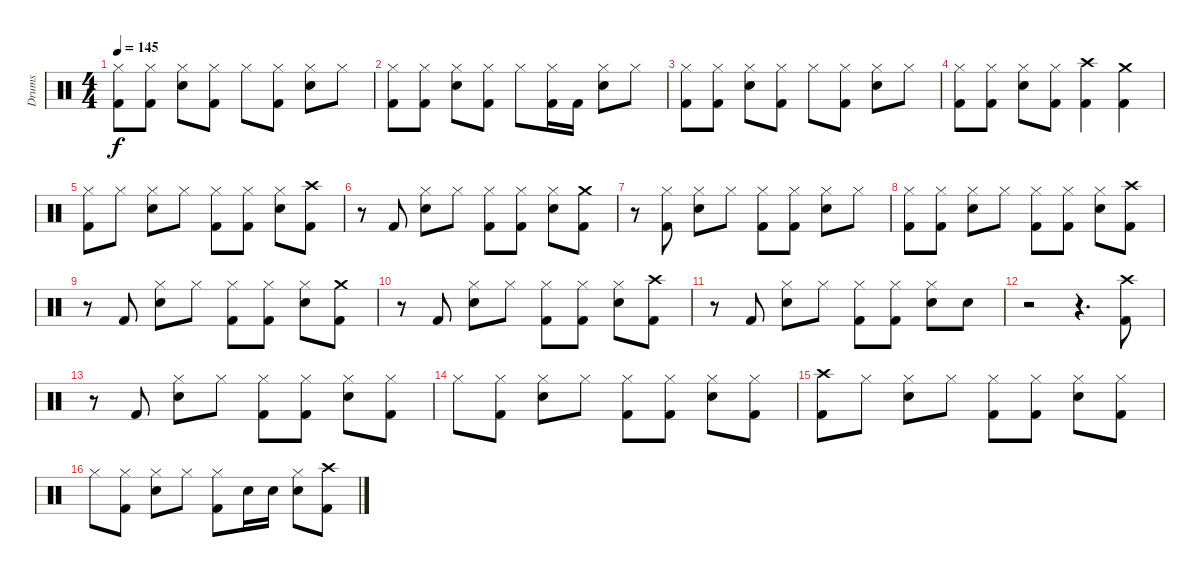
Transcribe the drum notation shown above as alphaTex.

\track ("Drums" "Drums") {instrument percussion}
\staff {score}
\articulation defaults
\ts (4 4)
\tempo 145
\clef neutral
\ks c
("Hi-Hat (closed)" "Kick (hit) 2").8{dy f} ("Hi-Hat (closed)" "Kick (hit) 2").8 ("Hi-Hat (closed)" "Snare (hit) 2").8 ("Hi-Hat (closed)" "Kick (hit) 2").8 "Hi-Hat (closed)".8 ("Hi-Hat (closed)" "Kick (hit) 2").8 ("Hi-Hat (closed)" "Snare (hit) 2").8 "Hi-Hat (closed)".8 |
("Hi-Hat (closed)" "Kick (hit) 2").8 ("Hi-Hat (closed)" "Kick (hit) 2").8 ("Hi-Hat (closed)" "Snare (hit) 2").8 ("Hi-Hat (closed)" "Kick (hit) 2").8 "Hi-Hat (closed)".8 ("Hi-Hat (closed)" "Kick (hit) 2").16 "Kick (hit) 2".16 ("Hi-Hat (closed)" "Snare (hit) 2").8 "Hi-Hat (closed)".8 |
("Hi-Hat (closed)" "Kick (hit) 2").8 ("Hi-Hat (closed)" "Kick (hit) 2").8 ("Hi-Hat (closed)" "Snare (hit) 2").8 ("Hi-Hat (closed)" "Kick (hit) 2").8 "Hi-Hat (closed)".8 ("Hi-Hat (closed)" "Kick (hit) 2").8 ("Hi-Hat (closed)" "Snare (hit) 2").8 "Hi-Hat (closed)".8 |
("Hi-Hat (closed)" "Kick (hit) 2").8 ("Hi-Hat (closed)" "Kick (hit) 2").8 ("Hi-Hat (closed)" "Snare (hit) 2").8 ("Hi-Hat (closed)" "Kick (hit) 2").8 ("Crash high (hit)" "Kick (hit) 2").4 ("Crash medium (hit)" "Kick (hit) 2").4 |
("Hi-Hat (closed)" "Kick (hit) 2").8 "Hi-Hat (closed)".8 ("Hi-Hat (closed)" "Snare (hit) 2").8 "Hi-Hat (closed)".8 ("Hi-Hat (closed)" "Kick (hit) 2").8 ("Hi-Hat (closed)" "Kick (hit) 2").8 ("Hi-Hat (closed)" "Snare (hit) 2").8 ("Crash high (hit)" "Kick (hit) 2").8 |
r.8 "Kick (hit) 2".8 ("Hi-Hat (closed)" "Snare (hit) 2").8 "Hi-Hat (closed)".8 ("Hi-Hat (closed)" "Kick (hit) 2").8 ("Hi-Hat (closed)" "Kick (hit) 2").8 ("Hi-Hat (closed)" "Snare (hit) 2").8 ("Crash medium (hit)" "Kick (hit) 2").8 |
r.8 ("Hi-Hat (closed)" "Kick (hit) 2").8 ("Hi-Hat (closed)" "Snare (hit) 2").8 "Hi-Hat (closed)".8 ("Hi-Hat (closed)" "Kick (hit) 2").8 ("Hi-Hat (closed)" "Kick (hit) 2").8 ("Hi-Hat (closed)" "Snare (hit) 2").8 "Hi-Hat (closed)".8 |
("Hi-Hat (closed)" "Kick (hit) 2").8 ("Hi-Hat (closed)" "Kick (hit) 2").8 ("Hi-Hat (closed)" "Snare (hit) 2").8 "Hi-Hat (closed)".8 ("Hi-Hat (closed)" "Kick (hit) 2").8 ("Hi-Hat (closed)" "Kick (hit) 2").8 ("Hi-Hat (closed)" "Snare (hit) 2").8 ("Crash high (hit)" "Kick (hit) 2").8 |
r.8 "Kick (hit) 2".8 ("Hi-Hat (closed)" "Snare (hit) 2").8 "Hi-Hat (closed)".8 ("Hi-Hat (closed)" "Kick (hit) 2").8 ("Hi-Hat (closed)" "Kick (hit) 2").8 ("Hi-Hat (closed)" "Snare (hit) 2").8 ("Crash medium (hit)" "Kick (hit) 2").8 |
r.8 "Kick (hit) 2".8 ("Hi-Hat (closed)" "Snare (hit) 2").8 "Hi-Hat (closed)".8 ("Hi-Hat (closed)" "Kick (hit) 2").8 ("Hi-Hat (closed)" "Kick (hit) 2").8 ("Hi-Hat (closed)" "Snare (hit) 2").8 ("Crash high (hit)" "Kick (hit) 2").8 |
r.8 "Kick (hit) 2".8 ("Hi-Hat (closed)" "Snare (hit) 2").8 "Hi-Hat (closed)".8 ("Hi-Hat (closed)" "Kick (hit) 2").8 ("Hi-Hat (closed)" "Kick (hit) 2").8 ("Hi-Hat (closed)" "Snare (hit) 2").8 "Snare (hit) 2".8 |
r.2 r.4{d} ("Crash high (hit)" "Kick (hit) 2").8 |
r.8 "Kick (hit) 2".8 ("Hi-Hat (closed)" "Snare (hit) 2").8 "Hi-Hat (closed)".8 ("Hi-Hat (closed)" "Kick (hit) 2").8 ("Hi-Hat (closed)" "Kick (hit) 2").8 ("Hi-Hat (closed)" "Snare (hit) 2").8 ("Hi-Hat (closed)" "Kick (hit) 2").8 |
"Hi-Hat (closed)".8 ("Hi-Hat (closed)" "Kick (hit) 2").8 ("Hi-Hat (closed)" "Snare (hit) 2").8 "Hi-Hat (closed)".8 ("Hi-Hat (closed)" "Kick (hit) 2").8 ("Hi-Hat (closed)" "Kick (hit) 2").8 ("Hi-Hat (closed)" "Snare (hit) 2").8 ("Hi-Hat (closed)" "Kick (hit) 2").8 |
("Crash high (hit)" "Kick (hit) 2").8 "Hi-Hat (closed)".8 ("Hi-Hat (closed)" "Snare (hit) 2").8 "Hi-Hat (closed)".8 ("Hi-Hat (closed)" "Kick (hit) 2").8 ("Hi-Hat (closed)" "Kick (hit) 2").8 ("Hi-Hat (closed)" "Snare (hit) 2").8 ("Hi-Hat (closed)" "Kick (hit) 2").8 |
"Hi-Hat (closed)".8 ("Hi-Hat (closed)" "Kick (hit) 2").8 ("Hi-Hat (closed)" "Snare (hit) 2").8 "Hi-Hat (closed)".8 ("Hi-Hat (closed)" "Kick (hit) 2").8 "Snare (hit) 2".16 "Snare (hit) 2".16 ("Hi-Hat (closed)" "Snare (hit) 2").8 ("Crash high (hit)" "Kick (hit) 2").8
